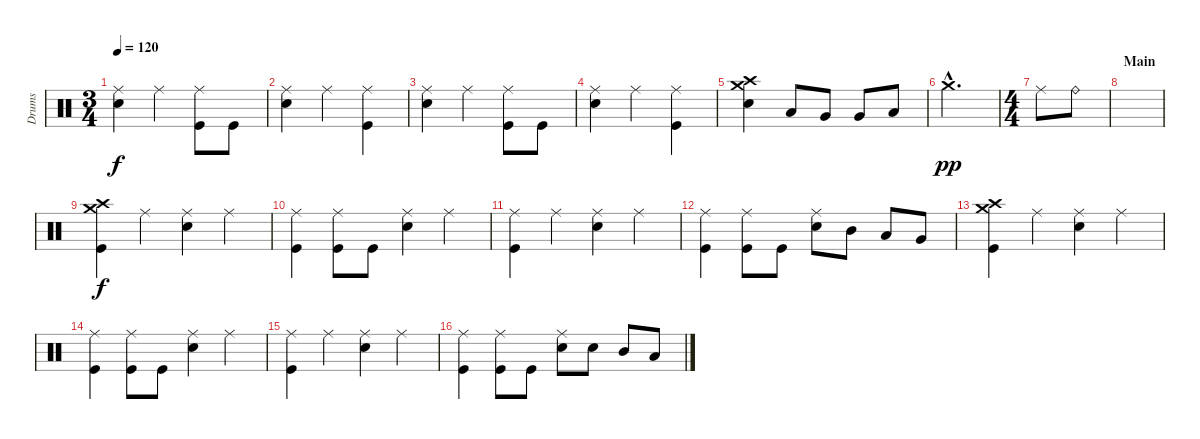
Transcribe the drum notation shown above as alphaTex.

\track ("Drums" "Drums") {instrument percussion}
\staff {score}
\articulation defaults
\ts (3 4)
\tempo 120
\clef neutral
\ks c
("Ride (middle)" "Snare (hit) 2").4{dy f} "Ride (middle)".4 ("Ride (middle)" "Kick (hit)").8 "Kick (hit)".8 |
("Ride (middle)" "Snare (hit) 2").4 "Ride (middle)".4 ("Ride (middle)" "Kick (hit)").4 |
("Ride (middle)" "Snare (hit) 2").4 "Ride (middle)".4 ("Ride (middle)" "Kick (hit)").8 "Kick (hit)".8 |
("Ride (middle)" "Snare (hit) 2").4 "Ride (middle)".4 ("Ride (middle)" "Kick (hit)").4 |
("Crash medium (hit)" "Crash high (hit)" "Snare (hit) 2").4 "Low Tom (hit)".8 "Very Low Tom (hit)".8 "Very Low Tom (hit)".8 "Low Floor Tom (hit)".8 |
"Crash medium (hit)"{hac}.2{d dy pp} |
\ts (4 4)
"Ride (middle)".8 "Ride (bell)".8 |
\section ("" "Main")
|
("Crash medium (hit)" "Crash high (hit)" "Kick (hit)").4{dy f} "Ride (middle)".4 ("Ride (middle)" "Snare (hit) 2").4 "Ride (middle)".4 |
("Ride (middle)" "Kick (hit)").4 ("Ride (middle)" "Kick (hit)").8 "Kick (hit)".8 ("Ride (middle)" "Snare (hit) 2").4 "Ride (middle)".4 |
("Ride (middle)" "Kick (hit)").4 "Ride (middle)".4 ("Ride (middle)" "Snare (hit) 2").4 "Ride (middle)".4 |
("Ride (middle)" "Kick (hit)").4 ("Ride (middle)" "Kick (hit)").8 "Kick (hit)".8 ("Ride (middle)" "Snare (hit) 2").8 "Mid Tom (hit)".8 "Low Tom (hit)".8 "Very Low Tom (hit)".8 |
("Crash medium (hit)" "Crash high (hit)" "Kick (hit)").4 "Ride (middle)".4 ("Ride (middle)" "Snare (hit) 2").4 "Ride (middle)".4 |
("Ride (middle)" "Kick (hit)").4 ("Ride (middle)" "Kick (hit)").8 "Kick (hit)".8 ("Ride (middle)" "Snare (hit) 2").4 "Ride (middle)".4 |
("Ride (middle)" "Kick (hit)").4 "Ride (middle)".4 ("Ride (middle)" "Snare (hit) 2").4 "Ride (middle)".4 |
("Ride (middle)" "Kick (hit)").4 ("Ride (middle)" "Kick (hit)").8 "Kick (hit)".8 ("Ride (middle)" "Snare (hit) 2").8 "Snare (hit) 2".8 "Mid Tom (hit)".8 "Low Tom (hit)".8
